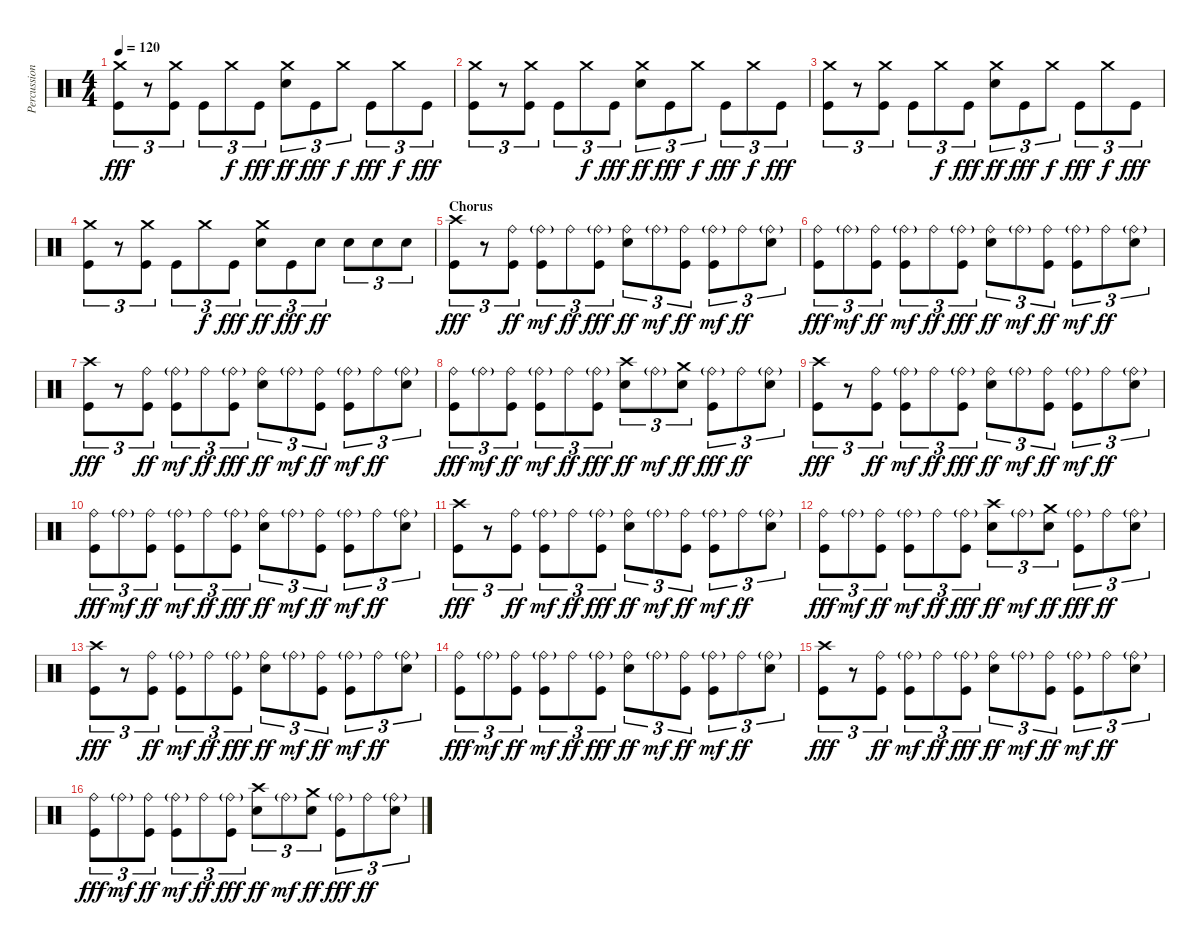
\track ("Percussion" "Percussion") {instrument percussion}
\staff {score}
\articulation defaults
\ts (4 4)
\tempo 120
\clef neutral
\ks c
("Crash medium (hit)" "Kick (hit)").8{tu (3 2) dy fff} r.8{tu (3 2)} ("Crash medium (hit)" "Kick (hit)").8{tu (3 2)} "Kick (hit)".8{tu (3 2)} "Crash medium (hit)".8{tu (3 2) dy f} "Kick (hit)".8{tu (3 2) dy fff} ("Crash medium (hit)" "Snare (hit) 2").8{tu (3 2) dy ff} "Kick (hit)".8{tu (3 2) dy fff} "Crash medium (hit)".8{tu (3 2) dy f} "Kick (hit)".8{tu (3 2) dy fff} "Crash medium (hit)".8{tu (3 2) dy f} "Kick (hit)".8{tu (3 2) dy fff} |
("Crash medium (hit)" "Kick (hit)").8{tu (3 2)} r.8{tu (3 2)} ("Crash medium (hit)" "Kick (hit)").8{tu (3 2)} "Kick (hit)".8{tu (3 2)} "Crash medium (hit)".8{tu (3 2) dy f} "Kick (hit)".8{tu (3 2) dy fff} ("Crash medium (hit)" "Snare (hit) 2").8{tu (3 2) dy ff} "Kick (hit)".8{tu (3 2) dy fff} "Crash medium (hit)".8{tu (3 2) dy f} "Kick (hit)".8{tu (3 2) dy fff} "Crash medium (hit)".8{tu (3 2) dy f} "Kick (hit)".8{tu (3 2) dy fff} |
("Crash medium (hit)" "Kick (hit)").8{tu (3 2)} r.8{tu (3 2)} ("Crash medium (hit)" "Kick (hit)").8{tu (3 2)} "Kick (hit)".8{tu (3 2)} "Crash medium (hit)".8{tu (3 2) dy f} "Kick (hit)".8{tu (3 2) dy fff} ("Crash medium (hit)" "Snare (hit) 2").8{tu (3 2) dy ff} "Kick (hit)".8{tu (3 2) dy fff} "Crash medium (hit)".8{tu (3 2) dy f} "Kick (hit)".8{tu (3 2) dy fff} "Crash medium (hit)".8{tu (3 2) dy f} "Kick (hit)".8{tu (3 2) dy fff} |
("Crash medium (hit)" "Kick (hit)").8{tu (3 2)} r.8{tu (3 2)} ("Crash medium (hit)" "Kick (hit)").8{tu (3 2)} "Kick (hit)".8{tu (3 2)} "Crash medium (hit)".8{tu (3 2) dy f} "Kick (hit)".8{tu (3 2) dy fff} ("Crash medium (hit)" "Snare (hit) 2").8{tu (3 2) dy ff} "Kick (hit)".8{tu (3 2) dy fff} "Snare (hit) 2".8{tu (3 2) dy ff} "Snare (hit) 2".8{tu (3 2)} "Snare (hit) 2".8{tu (3 2)} "Snare (hit) 2".8{tu (3 2)} |
\section ("" "Chorus")
("Crash high (hit)" "Kick (hit)").8{tu (3 2) dy fff} r.8{tu (3 2)} ("Ride (bell)" "Kick (hit)").8{tu (3 2) dy ff} ("Ride (bell)"{g} "Kick (hit)").8{tu (3 2) dy mf} "Ride (bell)".8{tu (3 2) dy ff} ("Ride (bell)"{g} "Kick (hit)").8{tu (3 2) dy fff} ("Ride (bell)" "Snare (hit) 2").8{tu (3 2) dy ff} "Ride (bell)"{g}.8{tu (3 2) dy mf} ("Ride (bell)" "Kick (hit)").8{tu (3 2) dy ff} ("Ride (bell)"{g} "Kick (hit)").8{tu (3 2) dy mf} "Ride (bell)".8{tu (3 2) dy ff} ("Ride (bell)"{g} "Snare (hit) 2").8{tu (3 2)} |
("Ride (bell)" "Kick (hit)").8{tu (3 2) dy fff} "Ride (bell)"{g}.8{tu (3 2) dy mf} ("Ride (bell)" "Kick (hit)").8{tu (3 2) dy ff} ("Ride (bell)"{g} "Kick (hit)").8{tu (3 2) dy mf} "Ride (bell)".8{tu (3 2) dy ff} ("Ride (bell)"{g} "Kick (hit)").8{tu (3 2) dy fff} ("Ride (bell)" "Snare (hit) 2").8{tu (3 2) dy ff} "Ride (bell)"{g}.8{tu (3 2) dy mf} ("Ride (bell)" "Kick (hit)").8{tu (3 2) dy ff} ("Ride (bell)"{g} "Kick (hit)").8{tu (3 2) dy mf} "Ride (bell)".8{tu (3 2) dy ff} ("Ride (bell)"{g} "Snare (hit) 2").8{tu (3 2)} |
("Crash high (hit)" "Kick (hit)").8{tu (3 2) dy fff} r.8{tu (3 2)} ("Ride (bell)" "Kick (hit)").8{tu (3 2) dy ff} ("Ride (bell)"{g} "Kick (hit)").8{tu (3 2) dy mf} "Ride (bell)".8{tu (3 2) dy ff} ("Ride (bell)"{g} "Kick (hit)").8{tu (3 2) dy fff} ("Ride (bell)" "Snare (hit) 2").8{tu (3 2) dy ff} "Ride (bell)"{g}.8{tu (3 2) dy mf} ("Ride (bell)" "Kick (hit)").8{tu (3 2) dy ff} ("Ride (bell)"{g} "Kick (hit)").8{tu (3 2) dy mf} "Ride (bell)".8{tu (3 2) dy ff} ("Ride (bell)"{g} "Snare (hit) 2").8{tu (3 2)} |
("Ride (bell)" "Kick (hit)").8{tu (3 2) dy fff} "Ride (bell)"{g}.8{tu (3 2) dy mf} ("Ride (bell)" "Kick (hit)").8{tu (3 2) dy ff} ("Ride (bell)"{g} "Kick (hit)").8{tu (3 2) dy mf} "Ride (bell)".8{tu (3 2) dy ff} ("Ride (bell)"{g} "Kick (hit)").8{tu (3 2) dy fff} ("Crash high (hit)" "Snare (hit) 2").8{tu (3 2) dy ff} "Ride (bell)"{g}.8{tu (3 2) dy mf} ("Crash medium (hit)" "Snare (hit) 2").8{tu (3 2) dy ff} ("Ride (bell)"{g} "Kick (hit)").8{tu (3 2) dy fff} "Ride (bell)".8{tu (3 2) dy ff} ("Ride (bell)"{g} "Snare (hit) 2").8{tu (3 2)} |
("Crash high (hit)" "Kick (hit)").8{tu (3 2) dy fff} r.8{tu (3 2)} ("Ride (bell)" "Kick (hit)").8{tu (3 2) dy ff} ("Ride (bell)"{g} "Kick (hit)").8{tu (3 2) dy mf} "Ride (bell)".8{tu (3 2) dy ff} ("Ride (bell)"{g} "Kick (hit)").8{tu (3 2) dy fff} ("Ride (bell)" "Snare (hit) 2").8{tu (3 2) dy ff} "Ride (bell)"{g}.8{tu (3 2) dy mf} ("Ride (bell)" "Kick (hit)").8{tu (3 2) dy ff} ("Ride (bell)"{g} "Kick (hit)").8{tu (3 2) dy mf} "Ride (bell)".8{tu (3 2) dy ff} ("Ride (bell)"{g} "Snare (hit) 2").8{tu (3 2)} |
("Ride (bell)" "Kick (hit)").8{tu (3 2) dy fff} "Ride (bell)"{g}.8{tu (3 2) dy mf} ("Ride (bell)" "Kick (hit)").8{tu (3 2) dy ff} ("Ride (bell)"{g} "Kick (hit)").8{tu (3 2) dy mf} "Ride (bell)".8{tu (3 2) dy ff} ("Ride (bell)"{g} "Kick (hit)").8{tu (3 2) dy fff} ("Ride (bell)" "Snare (hit) 2").8{tu (3 2) dy ff} "Ride (bell)"{g}.8{tu (3 2) dy mf} ("Ride (bell)" "Kick (hit)").8{tu (3 2) dy ff} ("Ride (bell)"{g} "Kick (hit)").8{tu (3 2) dy mf} "Ride (bell)".8{tu (3 2) dy ff} ("Ride (bell)"{g} "Snare (hit) 2").8{tu (3 2)} |
("Crash high (hit)" "Kick (hit)").8{tu (3 2) dy fff} r.8{tu (3 2)} ("Ride (bell)" "Kick (hit)").8{tu (3 2) dy ff} ("Ride (bell)"{g} "Kick (hit)").8{tu (3 2) dy mf} "Ride (bell)".8{tu (3 2) dy ff} ("Ride (bell)"{g} "Kick (hit)").8{tu (3 2) dy fff} ("Ride (bell)" "Snare (hit) 2").8{tu (3 2) dy ff} "Ride (bell)"{g}.8{tu (3 2) dy mf} ("Ride (bell)" "Kick (hit)").8{tu (3 2) dy ff} ("Ride (bell)"{g} "Kick (hit)").8{tu (3 2) dy mf} "Ride (bell)".8{tu (3 2) dy ff} ("Ride (bell)"{g} "Snare (hit) 2").8{tu (3 2)} |
("Ride (bell)" "Kick (hit)").8{tu (3 2) dy fff} "Ride (bell)"{g}.8{tu (3 2) dy mf} ("Ride (bell)" "Kick (hit)").8{tu (3 2) dy ff} ("Ride (bell)"{g} "Kick (hit)").8{tu (3 2) dy mf} "Ride (bell)".8{tu (3 2) dy ff} ("Ride (bell)"{g} "Kick (hit)").8{tu (3 2) dy fff} ("Crash high (hit)" "Snare (hit) 2").8{tu (3 2) dy ff} "Ride (bell)"{g}.8{tu (3 2) dy mf} ("Crash medium (hit)" "Snare (hit) 2").8{tu (3 2) dy ff} ("Ride (bell)"{g} "Kick (hit)").8{tu (3 2) dy fff} "Ride (bell)".8{tu (3 2) dy ff} ("Ride (bell)"{g} "Snare (hit) 2").8{tu (3 2)} |
("Crash high (hit)" "Kick (hit)").8{tu (3 2) dy fff} r.8{tu (3 2)} ("Ride (bell)" "Kick (hit)").8{tu (3 2) dy ff} ("Ride (bell)"{g} "Kick (hit)").8{tu (3 2) dy mf} "Ride (bell)".8{tu (3 2) dy ff} ("Ride (bell)"{g} "Kick (hit)").8{tu (3 2) dy fff} ("Ride (bell)" "Snare (hit) 2").8{tu (3 2) dy ff} "Ride (bell)"{g}.8{tu (3 2) dy mf} ("Ride (bell)" "Kick (hit)").8{tu (3 2) dy ff} ("Ride (bell)"{g} "Kick (hit)").8{tu (3 2) dy mf} "Ride (bell)".8{tu (3 2) dy ff} ("Ride (bell)"{g} "Snare (hit) 2").8{tu (3 2)} |
("Ride (bell)" "Kick (hit)").8{tu (3 2) dy fff} "Ride (bell)"{g}.8{tu (3 2) dy mf} ("Ride (bell)" "Kick (hit)").8{tu (3 2) dy ff} ("Ride (bell)"{g} "Kick (hit)").8{tu (3 2) dy mf} "Ride (bell)".8{tu (3 2) dy ff} ("Ride (bell)"{g} "Kick (hit)").8{tu (3 2) dy fff} ("Ride (bell)" "Snare (hit) 2").8{tu (3 2) dy ff} "Ride (bell)"{g}.8{tu (3 2) dy mf} ("Ride (bell)" "Kick (hit)").8{tu (3 2) dy ff} ("Ride (bell)"{g} "Kick (hit)").8{tu (3 2) dy mf} "Ride (bell)".8{tu (3 2) dy ff} ("Ride (bell)"{g} "Snare (hit) 2").8{tu (3 2)} |
("Crash high (hit)" "Kick (hit)").8{tu (3 2) dy fff} r.8{tu (3 2)} ("Ride (bell)" "Kick (hit)").8{tu (3 2) dy ff} ("Ride (bell)"{g} "Kick (hit)").8{tu (3 2) dy mf} "Ride (bell)".8{tu (3 2) dy ff} ("Ride (bell)"{g} "Kick (hit)").8{tu (3 2) dy fff} ("Ride (bell)" "Snare (hit) 2").8{tu (3 2) dy ff} "Ride (bell)"{g}.8{tu (3 2) dy mf} ("Ride (bell)" "Kick (hit)").8{tu (3 2) dy ff} ("Ride (bell)"{g} "Kick (hit)").8{tu (3 2) dy mf} "Ride (bell)".8{tu (3 2) dy ff} ("Ride (bell)"{g} "Snare (hit) 2").8{tu (3 2)} |
("Ride (bell)" "Kick (hit)").8{tu (3 2) dy fff} "Ride (bell)"{g}.8{tu (3 2) dy mf} ("Ride (bell)" "Kick (hit)").8{tu (3 2) dy ff} ("Ride (bell)"{g} "Kick (hit)").8{tu (3 2) dy mf} "Ride (bell)".8{tu (3 2) dy ff} ("Ride (bell)"{g} "Kick (hit)").8{tu (3 2) dy fff} ("Crash high (hit)" "Snare (hit) 2").8{tu (3 2) dy ff} "Ride (bell)"{g}.8{tu (3 2) dy mf} ("Crash medium (hit)" "Snare (hit) 2").8{tu (3 2) dy ff} ("Ride (bell)"{g} "Kick (hit)").8{tu (3 2) dy fff} "Ride (bell)".8{tu (3 2) dy ff} ("Ride (bell)"{g} "Snare (hit) 2").8{tu (3 2)}
